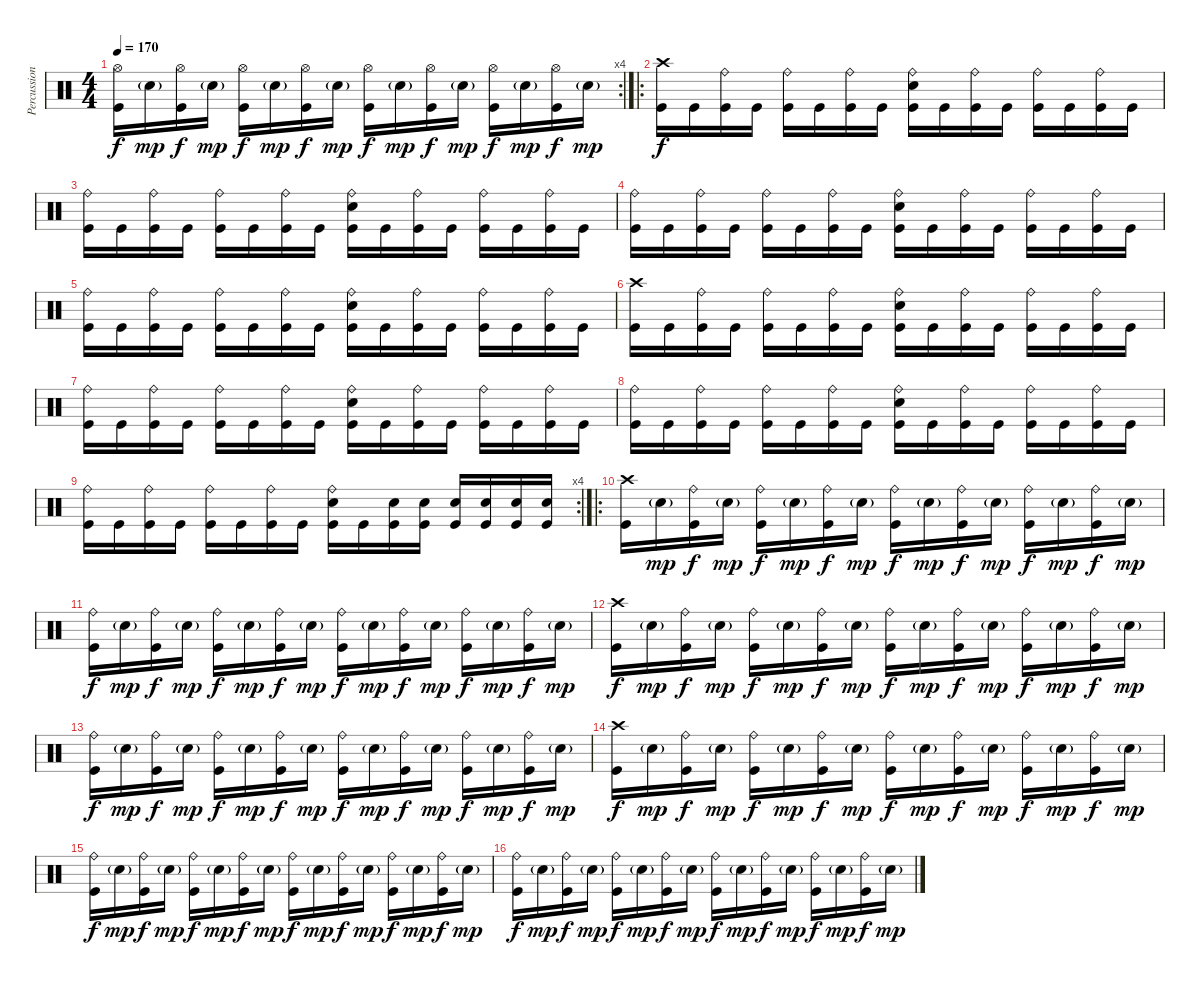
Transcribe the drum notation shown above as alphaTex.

\track ("Percussion" "Percussion") {instrument percussion}
\staff {score}
\articulation defaults
\rc 4
\ts (4 4)
\tempo 170
\clef neutral
\ks c
("Hi-Hat (open)" "Kick (hit)").16{dy f} "Snare (hit) 2"{g}.16{dy mp} ("Hi-Hat (open)" "Kick (hit)").16{dy f} "Snare (hit) 2"{g}.16{dy mp} ("Hi-Hat (open)" "Kick (hit)").16{dy f} "Snare (hit) 2"{g}.16{dy mp} ("Hi-Hat (open)" "Kick (hit)").16{dy f} "Snare (hit) 2"{g}.16{dy mp} ("Hi-Hat (open)" "Kick (hit)").16{dy f} "Snare (hit) 2"{g}.16{dy mp} ("Hi-Hat (open)" "Kick (hit)").16{dy f} "Snare (hit) 2"{g}.16{dy mp} ("Hi-Hat (open)" "Kick (hit)").16{dy f} "Snare (hit) 2"{g}.16{dy mp} ("Hi-Hat (open)" "Kick (hit)").16{dy f} "Snare (hit) 2"{g}.16{dy mp} |
\ro
("Crash high (hit)" "Kick (hit)").16{dy f} "Kick (hit)".16 ("Ride (bell)" "Kick (hit)").16 "Kick (hit)".16 ("Ride (bell)" "Kick (hit)").16 "Kick (hit)".16 ("Ride (bell)" "Kick (hit)").16 "Kick (hit)".16 ("Ride (bell)" "Snare (hit) 2" "Kick (hit)").16 "Kick (hit)".16 ("Ride (bell)" "Kick (hit)").16 "Kick (hit)".16 ("Ride (bell)" "Kick (hit)").16 "Kick (hit)".16 ("Ride (bell)" "Kick (hit)").16 "Kick (hit)".16 |
("Ride (bell)" "Kick (hit)").16 "Kick (hit)".16 ("Ride (bell)" "Kick (hit)").16 "Kick (hit)".16 ("Ride (bell)" "Kick (hit)").16 "Kick (hit)".16 ("Ride (bell)" "Kick (hit)").16 "Kick (hit)".16 ("Ride (bell)" "Snare (hit) 2" "Kick (hit)").16 "Kick (hit)".16 ("Ride (bell)" "Kick (hit)").16 "Kick (hit)".16 ("Ride (bell)" "Kick (hit)").16 "Kick (hit)".16 ("Ride (bell)" "Kick (hit)").16 "Kick (hit)".16 |
("Ride (bell)" "Kick (hit)").16 "Kick (hit)".16 ("Ride (bell)" "Kick (hit)").16 "Kick (hit)".16 ("Ride (bell)" "Kick (hit)").16 "Kick (hit)".16 ("Ride (bell)" "Kick (hit)").16 "Kick (hit)".16 ("Ride (bell)" "Snare (hit) 2" "Kick (hit)").16 "Kick (hit)".16 ("Ride (bell)" "Kick (hit)").16 "Kick (hit)".16 ("Ride (bell)" "Kick (hit)").16 "Kick (hit)".16 ("Ride (bell)" "Kick (hit)").16 "Kick (hit)".16 |
("Ride (bell)" "Kick (hit)").16 "Kick (hit)".16 ("Ride (bell)" "Kick (hit)").16 "Kick (hit)".16 ("Ride (bell)" "Kick (hit)").16 "Kick (hit)".16 ("Ride (bell)" "Kick (hit)").16 "Kick (hit)".16 ("Ride (bell)" "Snare (hit) 2" "Kick (hit)").16 "Kick (hit)".16 ("Ride (bell)" "Kick (hit)").16 "Kick (hit)".16 ("Ride (bell)" "Kick (hit)").16 "Kick (hit)".16 ("Ride (bell)" "Kick (hit)").16 "Kick (hit)".16 |
("Crash high (hit)" "Kick (hit)").16 "Kick (hit)".16 ("Ride (bell)" "Kick (hit)").16 "Kick (hit)".16 ("Ride (bell)" "Kick (hit)").16 "Kick (hit)".16 ("Ride (bell)" "Kick (hit)").16 "Kick (hit)".16 ("Ride (bell)" "Snare (hit) 2" "Kick (hit)").16 "Kick (hit)".16 ("Ride (bell)" "Kick (hit)").16 "Kick (hit)".16 ("Ride (bell)" "Kick (hit)").16 "Kick (hit)".16 ("Ride (bell)" "Kick (hit)").16 "Kick (hit)".16 |
("Ride (bell)" "Kick (hit)").16 "Kick (hit)".16 ("Ride (bell)" "Kick (hit)").16 "Kick (hit)".16 ("Ride (bell)" "Kick (hit)").16 "Kick (hit)".16 ("Ride (bell)" "Kick (hit)").16 "Kick (hit)".16 ("Ride (bell)" "Snare (hit) 2" "Kick (hit)").16 "Kick (hit)".16 ("Ride (bell)" "Kick (hit)").16 "Kick (hit)".16 ("Ride (bell)" "Kick (hit)").16 "Kick (hit)".16 ("Ride (bell)" "Kick (hit)").16 "Kick (hit)".16 |
("Ride (bell)" "Kick (hit)").16 "Kick (hit)".16 ("Ride (bell)" "Kick (hit)").16 "Kick (hit)".16 ("Ride (bell)" "Kick (hit)").16 "Kick (hit)".16 ("Ride (bell)" "Kick (hit)").16 "Kick (hit)".16 ("Ride (bell)" "Snare (hit) 2" "Kick (hit)").16 "Kick (hit)".16 ("Ride (bell)" "Kick (hit)").16 "Kick (hit)".16 ("Ride (bell)" "Kick (hit)").16 "Kick (hit)".16 ("Ride (bell)" "Kick (hit)").16 "Kick (hit)".16 |
\rc 4
("Ride (bell)" "Kick (hit)").16 "Kick (hit)".16 ("Ride (bell)" "Kick (hit)").16 "Kick (hit)".16 ("Ride (bell)" "Kick (hit)").16 "Kick (hit)".16 ("Ride (bell)" "Kick (hit)").16 "Kick (hit)".16 ("Ride (bell)" "Snare (hit) 2" "Kick (hit)").16 "Kick (hit)".16 ("Snare (hit) 2" "Kick (hit)").16 ("Snare (hit) 2" "Kick (hit)").16 ("Snare (hit) 2" "Kick (hit)").16 ("Snare (hit) 2" "Kick (hit)").16 ("Snare (hit) 2" "Kick (hit)").16 ("Snare (hit) 2" "Kick (hit)").16 |
\ro
("Crash high (hit)" "Kick (hit)").16 "Snare (hit) 2"{g}.16{dy mp} ("Ride (bell)" "Kick (hit)").16{dy f} "Snare (hit) 2"{g}.16{dy mp} ("Ride (bell)" "Kick (hit)").16{dy f} "Snare (hit) 2"{g}.16{dy mp} ("Ride (bell)" "Kick (hit)").16{dy f} "Snare (hit) 2"{g}.16{dy mp} ("Ride (bell)" "Kick (hit)").16{dy f} "Snare (hit) 2"{g}.16{dy mp} ("Ride (bell)" "Kick (hit)").16{dy f} "Snare (hit) 2"{g}.16{dy mp} ("Ride (bell)" "Kick (hit)").16{dy f} "Snare (hit) 2"{g}.16{dy mp} ("Ride (bell)" "Kick (hit)").16{dy f} "Snare (hit) 2"{g}.16{dy mp} |
("Ride (bell)" "Kick (hit)").16{dy f} "Snare (hit) 2"{g}.16{dy mp} ("Ride (bell)" "Kick (hit)").16{dy f} "Snare (hit) 2"{g}.16{dy mp} ("Ride (bell)" "Kick (hit)").16{dy f} "Snare (hit) 2"{g}.16{dy mp} ("Ride (bell)" "Kick (hit)").16{dy f} "Snare (hit) 2"{g}.16{dy mp} ("Ride (bell)" "Kick (hit)").16{dy f} "Snare (hit) 2"{g}.16{dy mp} ("Ride (bell)" "Kick (hit)").16{dy f} "Snare (hit) 2"{g}.16{dy mp} ("Ride (bell)" "Kick (hit)").16{dy f} "Snare (hit) 2"{g}.16{dy mp} ("Ride (bell)" "Kick (hit)").16{dy f} "Snare (hit) 2"{g}.16{dy mp} |
("Crash high (hit)" "Kick (hit)").16{dy f} "Snare (hit) 2"{g}.16{dy mp} ("Ride (bell)" "Kick (hit)").16{dy f} "Snare (hit) 2"{g}.16{dy mp} ("Ride (bell)" "Kick (hit)").16{dy f} "Snare (hit) 2"{g}.16{dy mp} ("Ride (bell)" "Kick (hit)").16{dy f} "Snare (hit) 2"{g}.16{dy mp} ("Ride (bell)" "Kick (hit)").16{dy f} "Snare (hit) 2"{g}.16{dy mp} ("Ride (bell)" "Kick (hit)").16{dy f} "Snare (hit) 2"{g}.16{dy mp} ("Ride (bell)" "Kick (hit)").16{dy f} "Snare (hit) 2"{g}.16{dy mp} ("Ride (bell)" "Kick (hit)").16{dy f} "Snare (hit) 2"{g}.16{dy mp} |
("Ride (bell)" "Kick (hit)").16{dy f} "Snare (hit) 2"{g}.16{dy mp} ("Ride (bell)" "Kick (hit)").16{dy f} "Snare (hit) 2"{g}.16{dy mp} ("Ride (bell)" "Kick (hit)").16{dy f} "Snare (hit) 2"{g}.16{dy mp} ("Ride (bell)" "Kick (hit)").16{dy f} "Snare (hit) 2"{g}.16{dy mp} ("Ride (bell)" "Kick (hit)").16{dy f} "Snare (hit) 2"{g}.16{dy mp} ("Ride (bell)" "Kick (hit)").16{dy f} "Snare (hit) 2"{g}.16{dy mp} ("Ride (bell)" "Kick (hit)").16{dy f} "Snare (hit) 2"{g}.16{dy mp} ("Ride (bell)" "Kick (hit)").16{dy f} "Snare (hit) 2"{g}.16{dy mp} |
("Crash high (hit)" "Kick (hit)").16{dy f} "Snare (hit) 2"{g}.16{dy mp} ("Ride (bell)" "Kick (hit)").16{dy f} "Snare (hit) 2"{g}.16{dy mp} ("Ride (bell)" "Kick (hit)").16{dy f} "Snare (hit) 2"{g}.16{dy mp} ("Ride (bell)" "Kick (hit)").16{dy f} "Snare (hit) 2"{g}.16{dy mp} ("Ride (bell)" "Kick (hit)").16{dy f} "Snare (hit) 2"{g}.16{dy mp} ("Ride (bell)" "Kick (hit)").16{dy f} "Snare (hit) 2"{g}.16{dy mp} ("Ride (bell)" "Kick (hit)").16{dy f} "Snare (hit) 2"{g}.16{dy mp} ("Ride (bell)" "Kick (hit)").16{dy f} "Snare (hit) 2"{g}.16{dy mp} |
("Ride (bell)" "Kick (hit)").16{dy f} "Snare (hit) 2"{g}.16{dy mp} ("Ride (bell)" "Kick (hit)").16{dy f} "Snare (hit) 2"{g}.16{dy mp} ("Ride (bell)" "Kick (hit)").16{dy f} "Snare (hit) 2"{g}.16{dy mp} ("Ride (bell)" "Kick (hit)").16{dy f} "Snare (hit) 2"{g}.16{dy mp} ("Ride (bell)" "Kick (hit)").16{dy f} "Snare (hit) 2"{g}.16{dy mp} ("Ride (bell)" "Kick (hit)").16{dy f} "Snare (hit) 2"{g}.16{dy mp} ("Ride (bell)" "Kick (hit)").16{dy f} "Snare (hit) 2"{g}.16{dy mp} ("Ride (bell)" "Kick (hit)").16{dy f} "Snare (hit) 2"{g}.16{dy mp} |
("Ride (bell)" "Kick (hit)").16{dy f} "Snare (hit) 2"{g}.16{dy mp} ("Ride (bell)" "Kick (hit)").16{dy f} "Snare (hit) 2"{g}.16{dy mp} ("Ride (bell)" "Kick (hit)").16{dy f} "Snare (hit) 2"{g}.16{dy mp} ("Ride (bell)" "Kick (hit)").16{dy f} "Snare (hit) 2"{g}.16{dy mp} ("Ride (bell)" "Kick (hit)").16{dy f} "Snare (hit) 2"{g}.16{dy mp} ("Ride (bell)" "Kick (hit)").16{dy f} "Snare (hit) 2"{g}.16{dy mp} ("Ride (bell)" "Kick (hit)").16{dy f} "Snare (hit) 2"{g}.16{dy mp} ("Ride (bell)" "Kick (hit)").16{dy f} "Snare (hit) 2"{g}.16{dy mp}
